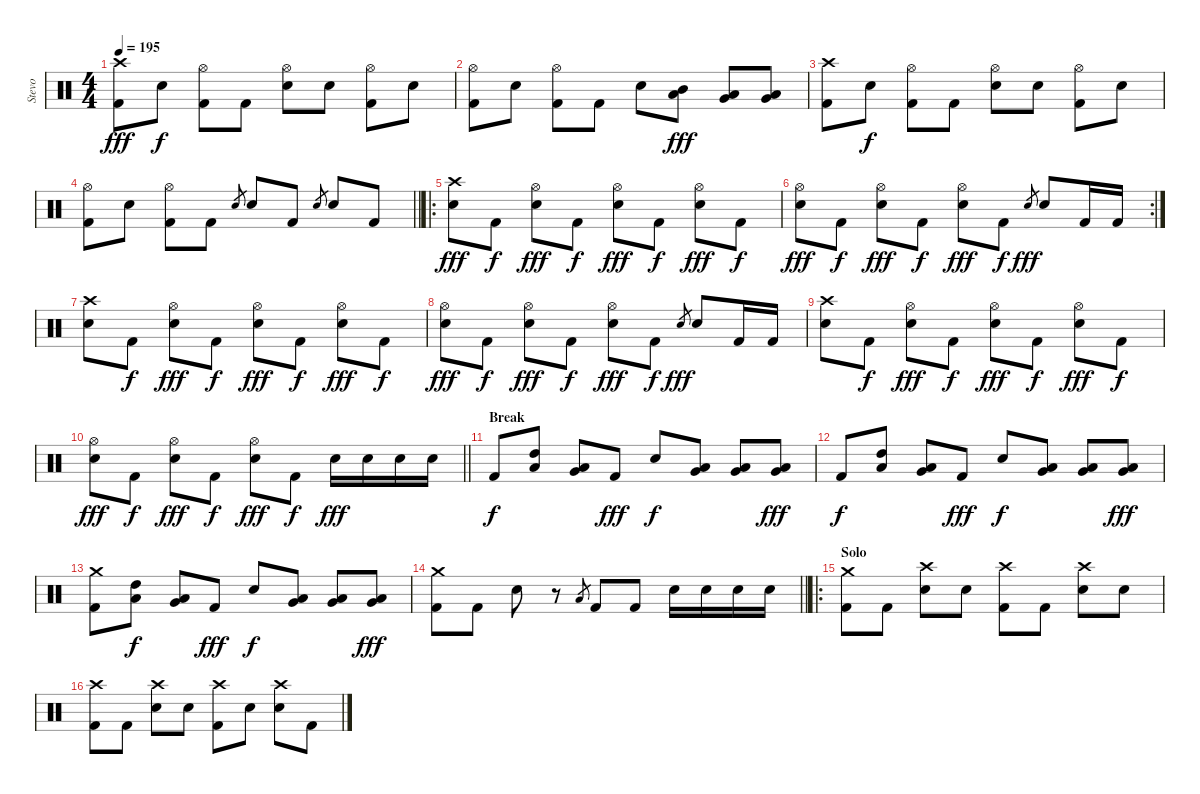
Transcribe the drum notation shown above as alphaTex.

\track ("Stevo" "Stevo") {instrument percussion}
\staff {score}
\articulation defaults
\ts (4 4)
\tempo 195
\clef neutral
\ks c
("Crash high (hit)" "Kick (hit) 2").8{dy fff} "Electric Snare (hit)".8{dy f} ("Hi-Hat (open)" "Kick (hit) 2").8 "Kick (hit) 2".8 ("Hi-Hat (open)" "Electric Snare (hit)").8 "Electric Snare (hit)".8 ("Hi-Hat (open)" "Kick (hit) 2").8 "Electric Snare (hit)".8 |
("Hi-Hat (open)" "Kick (hit) 2").8 "Electric Snare (hit)".8 ("Hi-Hat (open)" "Kick (hit) 2").8 "Kick (hit) 2".8 "Electric Snare (hit)".8 ("Mid Tom (hit)" "Low Tom (hit)").8{dy fff} ("Low Tom (hit)" "Very Low Tom (hit)").8 ("Very Low Tom (hit)" "Low Floor Tom (hit)").8 |
("Crash high (hit)" "Kick (hit) 2").8 "Electric Snare (hit)".8{dy f} ("Hi-Hat (open)" "Kick (hit) 2").8 "Kick (hit) 2".8 ("Hi-Hat (open)" "Electric Snare (hit)").8 "Electric Snare (hit)".8 ("Hi-Hat (open)" "Kick (hit) 2").8 "Electric Snare (hit)".8 |
\barLineRight lightlight
("Hi-Hat (open)" "Kick (hit) 2").8 "Electric Snare (hit)".8 ("Hi-Hat (open)" "Kick (hit) 2").8 "Kick (hit) 2".8 "Electric Snare (hit)".8{gr} "Electric Snare (hit)".8 "Kick (hit) 2".8 "Electric Snare (hit)".8{gr} "Electric Snare (hit)".8 "Kick (hit) 2".8 |
\ro
("Crash high (hit)" "Electric Snare (hit)").8{dy fff} "Kick (hit) 2".8{dy f} ("Hi-Hat (open)" "Electric Snare (hit)").8{dy fff} "Kick (hit) 2".8{dy f} ("Hi-Hat (open)" "Electric Snare (hit)").8{dy fff} "Kick (hit) 2".8{dy f} ("Hi-Hat (open)" "Electric Snare (hit)").8{dy fff} "Kick (hit) 2".8{dy f} |
\rc 2
("Hi-Hat (open)" "Electric Snare (hit)").8{dy fff} "Kick (hit) 2".8{dy f} ("Hi-Hat (open)" "Electric Snare (hit)").8{dy fff} "Kick (hit) 2".8{dy f} ("Hi-Hat (open)" "Electric Snare (hit)").8{dy fff} "Kick (hit) 2".8{dy f} "Electric Snare (hit)".8{gr dy fff} "Electric Snare (hit)".8 "Kick (hit) 2".16 "Kick (hit) 2".16 |
("Crash high (hit)" "Electric Snare (hit)").8 "Kick (hit) 2".8{dy f} ("Hi-Hat (open)" "Electric Snare (hit)").8{dy fff} "Kick (hit) 2".8{dy f} ("Hi-Hat (open)" "Electric Snare (hit)").8{dy fff} "Kick (hit) 2".8{dy f} ("Hi-Hat (open)" "Electric Snare (hit)").8{dy fff} "Kick (hit) 2".8{dy f} |
("Hi-Hat (open)" "Electric Snare (hit)").8{dy fff} "Kick (hit) 2".8{dy f} ("Hi-Hat (open)" "Electric Snare (hit)").8{dy fff} "Kick (hit) 2".8{dy f} ("Hi-Hat (open)" "Electric Snare (hit)").8{dy fff} "Kick (hit) 2".8{dy f} "Electric Snare (hit)".8{gr dy fff} "Electric Snare (hit)".8 "Kick (hit) 2".16 "Kick (hit) 2".16 |
("Crash high (hit)" "Electric Snare (hit)").8 "Kick (hit) 2".8{dy f} ("Hi-Hat (open)" "Electric Snare (hit)").8{dy fff} "Kick (hit) 2".8{dy f} ("Hi-Hat (open)" "Electric Snare (hit)").8{dy fff} "Kick (hit) 2".8{dy f} ("Hi-Hat (open)" "Electric Snare (hit)").8{dy fff} "Kick (hit) 2".8{dy f} |
\barLineRight lightlight
("Hi-Hat (open)" "Electric Snare (hit)").8{dy fff} "Kick (hit) 2".8{dy f} ("Hi-Hat (open)" "Electric Snare (hit)").8{dy fff} "Kick (hit) 2".8{dy f} ("Hi-Hat (open)" "Electric Snare (hit)").8{dy fff} "Kick (hit) 2".8{dy f} "Electric Snare (hit)".16{dy fff} "Electric Snare (hit)".16 "Electric Snare (hit)".16 "Electric Snare (hit)".16 |
\section ("" "Break")
"Kick (hit) 2".8{dy f} ("Low Tom (hit)" "High Tom (hit)").8 ("Very Low Tom (hit)" "Low Tom (hit)").8 "Kick (hit) 2".8{dy fff} "Electric Snare (hit)".8{dy f} ("Low Floor Tom (hit)" "Very Low Tom (hit)").8 ("Very Low Tom (hit)" "Low Tom (hit)").8 ("Low Floor Tom (hit)" "Very Low Tom (hit)").8{dy fff} |
"Kick (hit) 2".8{dy f} ("Low Tom (hit)" "High Tom (hit)").8 ("Very Low Tom (hit)" "Low Tom (hit)").8 "Kick (hit) 2".8{dy fff} "Electric Snare (hit)".8{dy f} ("Low Floor Tom (hit)" "Very Low Tom (hit)").8 ("Very Low Tom (hit)" "Low Tom (hit)").8 ("Low Floor Tom (hit)" "Very Low Tom (hit)").8{dy fff} |
("Crash medium (hit)" "Kick (hit) 2").8 ("Low Tom (hit)" "High Tom (hit)").8{dy f} ("Very Low Tom (hit)" "Low Tom (hit)").8 "Kick (hit) 2".8{dy fff} "Electric Snare (hit)".8{dy f} ("Low Floor Tom (hit)" "Very Low Tom (hit)").8 ("Very Low Tom (hit)" "Low Tom (hit)").8 ("Low Floor Tom (hit)" "Very Low Tom (hit)").8{dy fff} |
\barLineRight lightlight
("Crash medium (hit)" "Kick (hit) 2").8 "Kick (hit) 2".8 "Electric Snare (hit)".8 r.8 "Low Tom (hit)".8{gr} "Kick (hit) 2".8 "Kick (hit) 2".8 "Electric Snare (hit)".16 "Electric Snare (hit)".16 "Electric Snare (hit)".16 "Electric Snare (hit)".16 |
\ro
\section ("" "Solo")
("Crash medium (hit)" "Kick (hit) 2").8 "Kick (hit) 2".8 ("Crash high (hit)" "Electric Snare (hit)").8 "Snare (hit)".8 ("Crash high (hit)" "Kick (hit) 2").8 "Kick (hit) 2".8 ("Crash high (hit)" "Electric Snare (hit)").8 "Snare (hit)".8 |
("Crash high (hit)" "Kick (hit) 2").8 "Kick (hit) 2".8 ("Crash high (hit)" "Electric Snare (hit)").8 "Snare (hit)".8 ("Crash high (hit)" "Kick (hit) 2").8 "Electric Snare (hit)".8 ("Crash high (hit)" "Electric Snare (hit)").8 "Kick (hit) 2".8
